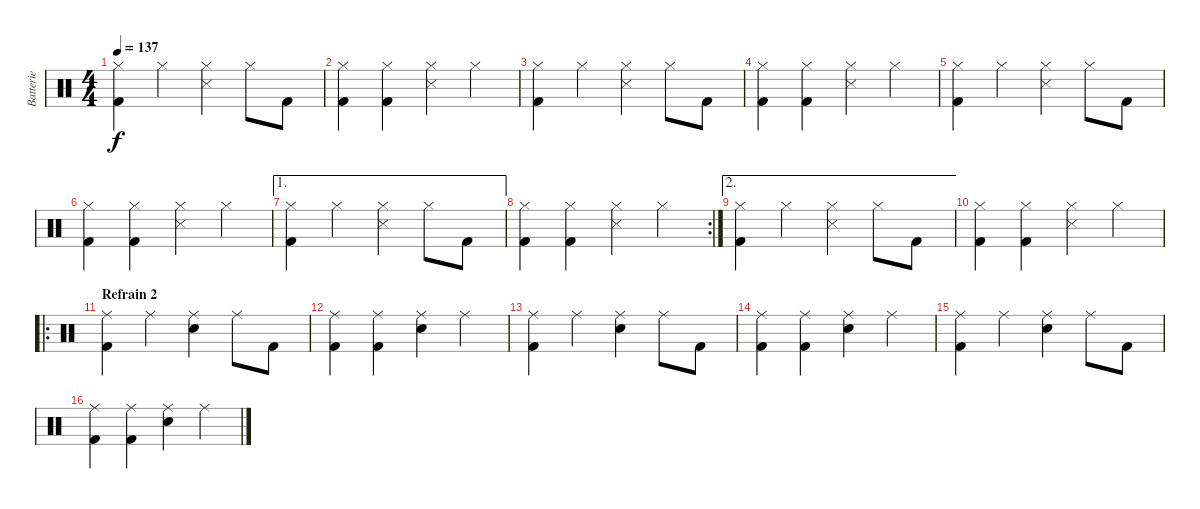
\track ("Batterie" "Batterie") {instrument percussion}
\staff {score}
\articulation defaults
\ts (4 4)
\tempo 137
\clef neutral
\ks c
("Kick (hit) 2" "Hi-Hat (closed)").4{dy f} "Hi-Hat (closed)".4 ("Snare (side stick) 3" "Hi-Hat (closed)").4 "Hi-Hat (closed)".8 "Kick (hit) 2".8 |
("Kick (hit) 2" "Hi-Hat (closed)").4 ("Kick (hit) 2" "Hi-Hat (closed)").4 ("Snare (side stick) 3" "Hi-Hat (closed)").4 "Hi-Hat (closed)".4 |
("Kick (hit) 2" "Hi-Hat (closed)").4 "Hi-Hat (closed)".4 ("Snare (side stick) 3" "Hi-Hat (closed)").4 "Hi-Hat (closed)".8 "Kick (hit) 2".8 |
("Kick (hit) 2" "Hi-Hat (closed)").4 ("Kick (hit) 2" "Hi-Hat (closed)").4 ("Snare (side stick) 3" "Hi-Hat (closed)").4 "Hi-Hat (closed)".4 |
("Kick (hit) 2" "Hi-Hat (closed)").4 "Hi-Hat (closed)".4 ("Snare (side stick) 3" "Hi-Hat (closed)").4 "Hi-Hat (closed)".8 "Kick (hit) 2".8 |
("Kick (hit) 2" "Hi-Hat (closed)").4 ("Kick (hit) 2" "Hi-Hat (closed)").4 ("Snare (side stick) 3" "Hi-Hat (closed)").4 "Hi-Hat (closed)".4 |
\ae 1
("Kick (hit) 2" "Hi-Hat (closed)").4 "Hi-Hat (closed)".4 ("Snare (side stick) 3" "Hi-Hat (closed)").4 "Hi-Hat (closed)".8 "Kick (hit) 2".8 |
\rc 2
("Kick (hit) 2" "Hi-Hat (closed)").4 ("Kick (hit) 2" "Hi-Hat (closed)").4 ("Snare (side stick) 3" "Hi-Hat (closed)").4 "Hi-Hat (closed)".4 |
\ae 2
("Kick (hit) 2" "Hi-Hat (closed)").4 "Hi-Hat (closed)".4 ("Snare (side stick) 3" "Hi-Hat (closed)").4 "Hi-Hat (closed)".8 "Kick (hit) 2".8 |
("Kick (hit) 2" "Hi-Hat (closed)").4 ("Kick (hit) 2" "Hi-Hat (closed)").4 ("Snare (side stick) 3" "Hi-Hat (closed)").4 "Hi-Hat (closed)".4 |
\ro
\section ("" "Refrain 2")
("Kick (hit) 2" "Ride (middle)").4 "Ride (middle)".4 ("Snare (hit) 2" "Ride (middle)").4 "Ride (middle)".8 "Kick (hit) 2".8 |
("Kick (hit) 2" "Ride (middle)").4 ("Kick (hit) 2" "Ride (middle)").4 ("Snare (hit) 2" "Ride (middle)").4 "Ride (middle)".4 |
("Kick (hit) 2" "Ride (middle)").4 "Ride (middle)".4 ("Snare (hit) 2" "Ride (middle)").4 "Ride (middle)".8 "Kick (hit) 2".8 |
("Kick (hit) 2" "Ride (middle)").4 ("Kick (hit) 2" "Ride (middle)").4 ("Snare (hit) 2" "Ride (middle)").4 "Ride (middle)".4 |
("Kick (hit) 2" "Ride (middle)").4 "Ride (middle)".4 ("Snare (hit) 2" "Ride (middle)").4 "Ride (middle)".8 "Kick (hit) 2".8 |
("Kick (hit) 2" "Ride (middle)").4 ("Kick (hit) 2" "Ride (middle)").4 ("Snare (hit) 2" "Ride (middle)").4 "Ride (middle)".4
